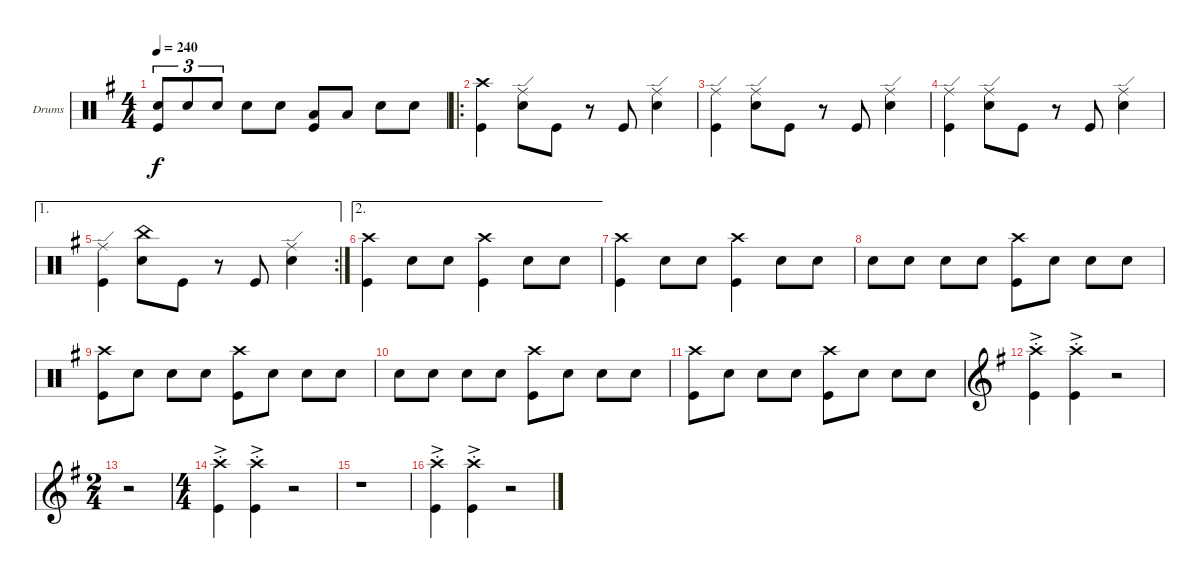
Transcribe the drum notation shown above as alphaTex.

\defaultSystemsLayout 4
\bracketExtendMode groupsimilarinstruments
\firstSystemTrackNameOrientation horizontal
\otherSystemsTrackNameOrientation horizontal
\track ("Drums" "Drums") {instrument percussion}
\staff {score}
\articulation defaults
\ts (4 4)
\tempo 240
\clef neutral
\ks g
("Snare (hit) 2" "Kick (hit)").8{tu (3 2) dy f} "Snare (hit) 2".8{tu (3 2)} "Snare (hit) 2".8{tu (3 2)} "Snare (hit) 2".8 "Snare (hit) 2".8 ("Low Tom (hit)" "Kick (hit)").8 "Low Tom (hit)".8 "Snare (hit) 2".8 "Snare (hit) 2".8 |
\ro
("Kick (hit)" "Crash high (hit)").4 ("Snare (hit) 2" "Ride (edge)").8 "Kick (hit)".8 r.8 "Kick (hit)".8 ("Snare (hit) 2" "Ride (edge)").4 |
("Kick (hit)" "Ride (edge)").4 ("Snare (hit) 2" "Ride (edge)").8 "Kick (hit)".8 r.8 "Kick (hit)".8 ("Snare (hit) 2" "Ride (edge)").4 |
("Kick (hit)" "Ride (edge)").4 ("Snare (hit) 2" "Ride (edge)").8 "Kick (hit)".8 r.8 "Kick (hit)".8 ("Snare (hit) 2" "Ride (edge)").4 |
\ae 1
\rc 2
("Kick (hit)" "Ride (edge)").4 ("Snare (hit) 2" "China (hit)").8 "Kick (hit)".8 r.8 "Kick (hit)".8 ("Snare (hit) 2" "Ride (edge)").4 |
\ae 2
("Kick (hit)" "Crash high (hit)").4 "Snare (hit) 2".8 "Snare (hit) 2".8 ("Kick (hit)" "Crash high (hit)").4 "Snare (hit) 2".8 "Snare (hit) 2".8 |
("Kick (hit)" "Crash high (hit)").4 "Snare (hit) 2".8 "Snare (hit) 2".8 ("Kick (hit)" "Crash high (hit)").4 "Snare (hit) 2".8 "Snare (hit) 2".8 |
"Snare (hit) 2".8 "Snare (hit) 2".8 "Snare (hit) 2".8 "Snare (hit) 2".8 ("Kick (hit)" "Crash high (hit)").8 "Snare (hit) 2".8 "Snare (hit) 2".8 "Snare (hit) 2".8 |
("Kick (hit)" "Crash high (hit)").8 "Snare (hit) 2".8 "Snare (hit) 2".8 "Snare (hit) 2".8 ("Kick (hit)" "Crash high (hit)").8 "Snare (hit) 2".8 "Snare (hit) 2".8 "Snare (hit) 2".8 |
"Snare (hit) 2".8 "Snare (hit) 2".8 "Snare (hit) 2".8 "Snare (hit) 2".8 ("Kick (hit)" "Crash high (hit)").8 "Snare (hit) 2".8 "Snare (hit) 2".8 "Snare (hit) 2".8 |
("Kick (hit)" "Crash high (hit)").8 "Snare (hit) 2".8 "Snare (hit) 2".8 "Snare (hit) 2".8 ("Kick (hit)" "Crash high (hit)").8 "Snare (hit) 2".8 "Snare (hit) 2".8 "Snare (hit) 2".8 |
\clef g2
("Kick (hit)"{ac st} "Crash high (hit)"{ac st}).4 ("Kick (hit)"{ac st} "Crash high (hit)"{ac st}).4 r.2 |
\ts (2 4)
r.2 |
\ts (4 4)
("Kick (hit)"{ac st} "Crash high (hit)"{ac st}).4 ("Kick (hit)"{ac st} "Crash high (hit)"{ac st}).4 r.2 |
r.1 |
("Kick (hit)"{ac st} "Crash high (hit)"{ac st}).4 ("Kick (hit)"{ac st} "Crash high (hit)"{ac st}).4 r.2
